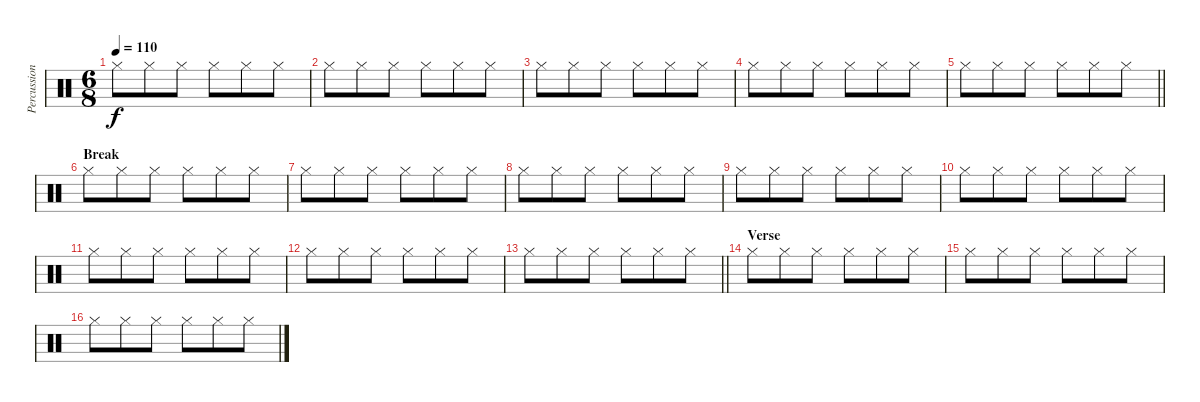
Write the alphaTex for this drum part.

\track ("Percussion" "Percussion") {instrument percussion}
\staff {score}
\articulation defaults
\ts (6 8)
\tempo 110
\clef neutral
\ks c "Hi-Hat (closed)".8{dy f} "Hi-Hat (closed)".8 "Hi-Hat (closed)".8 "Hi-Hat (closed)".8 "Hi-Hat (closed)".8 "Hi-Hat (closed)".8
|
"Hi-Hat (closed)".8 "Hi-Hat (closed)".8 "Hi-Hat (closed)".8 "Hi-Hat (closed)".8 "Hi-Hat (closed)".8 "Hi-Hat (closed)".8 |
"Hi-Hat (closed)".8 "Hi-Hat (closed)".8 "Hi-Hat (closed)".8 "Hi-Hat (closed)".8 "Hi-Hat (closed)".8 "Hi-Hat (closed)".8 |
"Hi-Hat (closed)".8 "Hi-Hat (closed)".8 "Hi-Hat (closed)".8 "Hi-Hat (closed)".8 "Hi-Hat (closed)".8 "Hi-Hat (closed)".8 |
\barLineRight lightlight "Hi-Hat (closed)".8 "Hi-Hat (closed)".8 "Hi-Hat (closed)".8 "Hi-Hat (closed)".8 "Hi-Hat (closed)".8 "Hi-Hat (closed)".8
|
\section ("" "Break")
"Hi-Hat (closed)".8 "Hi-Hat (closed)".8 "Hi-Hat (closed)".8 "Hi-Hat (closed)".8 "Hi-Hat (closed)".8 "Hi-Hat (closed)".8 |
"Hi-Hat (closed)".8 "Hi-Hat (closed)".8 "Hi-Hat (closed)".8 "Hi-Hat (closed)".8 "Hi-Hat (closed)".8 "Hi-Hat (closed)".8 |
"Hi-Hat (closed)".8 "Hi-Hat (closed)".8 "Hi-Hat (closed)".8 "Hi-Hat (closed)".8 "Hi-Hat (closed)".8 "Hi-Hat (closed)".8 |
"Hi-Hat (closed)".8 "Hi-Hat (closed)".8 "Hi-Hat (closed)".8 "Hi-Hat (closed)".8 "Hi-Hat (closed)".8 "Hi-Hat (closed)".8 |
"Hi-Hat (closed)".8 "Hi-Hat (closed)".8 "Hi-Hat (closed)".8 "Hi-Hat (closed)".8 "Hi-Hat (closed)".8 "Hi-Hat (closed)".8 |
"Hi-Hat (closed)".8 "Hi-Hat (closed)".8 "Hi-Hat (closed)".8 "Hi-Hat (closed)".8 "Hi-Hat (closed)".8 "Hi-Hat (closed)".8 |
"Hi-Hat (closed)".8 "Hi-Hat (closed)".8 "Hi-Hat (closed)".8 "Hi-Hat (closed)".8 "Hi-Hat (closed)".8 "Hi-Hat (closed)".8 |
\barLineRight lightlight "Hi-Hat (closed)".8 "Hi-Hat (closed)".8 "Hi-Hat (closed)".8 "Hi-Hat (closed)".8 "Hi-Hat (closed)".8 "Hi-Hat (closed)".8
|
\section ("" "Verse")
"Hi-Hat (closed)".8 "Hi-Hat (closed)".8 "Hi-Hat (closed)".8 "Hi-Hat (closed)".8 "Hi-Hat (closed)".8 "Hi-Hat (closed)".8 |
"Hi-Hat (closed)".8 "Hi-Hat (closed)".8 "Hi-Hat (closed)".8 "Hi-Hat (closed)".8 "Hi-Hat (closed)".8 "Hi-Hat (closed)".8 |
"Hi-Hat (closed)".8 "Hi-Hat (closed)".8 "Hi-Hat (closed)".8 "Hi-Hat (closed)".8 "Hi-Hat (closed)".8 "Hi-Hat (closed)".8
